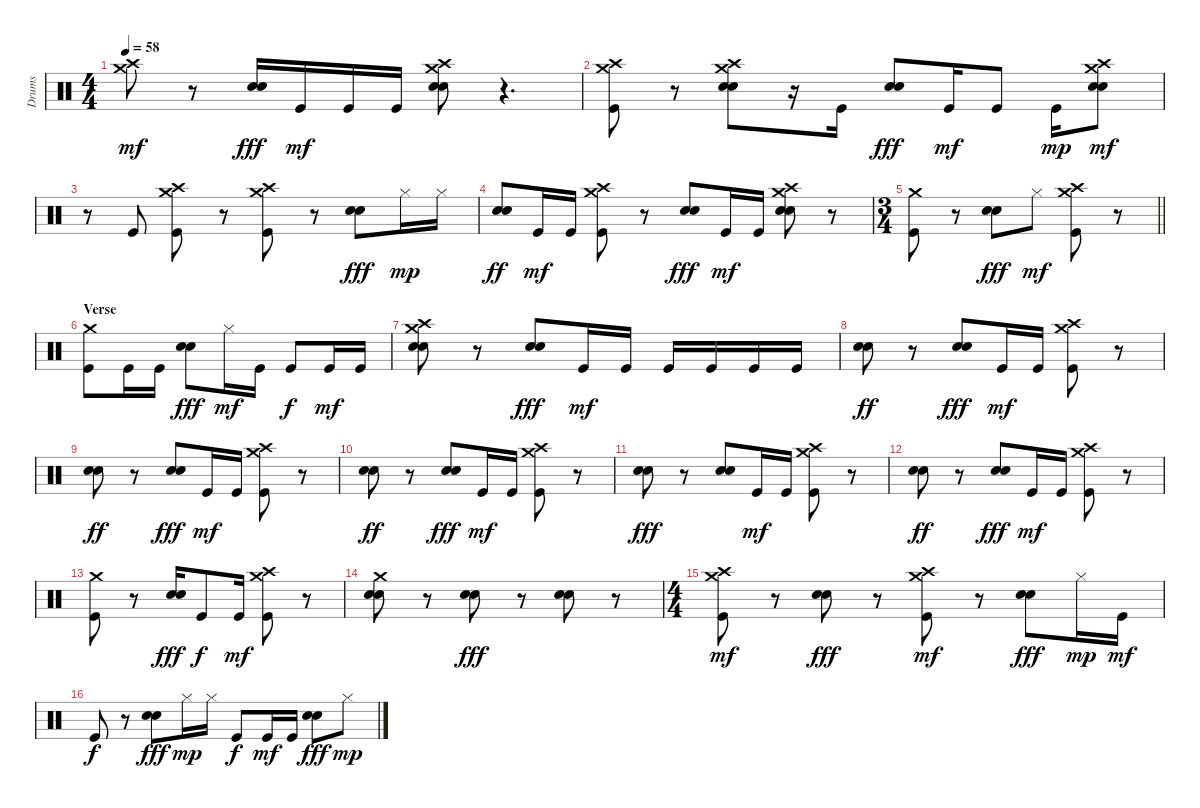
\track ("Drums" "Drums") {instrument percussion}
\staff {score}
\articulation defaults
\ts (4 4)
\tempo 58
\clef neutral
\ks c
("Crash high (hit)" "Crash medium (hit)").8{dy mf} r.8 ("Snare (hit) 2" "Electric Snare (hit)").16{dy fff} "Kick (hit)".16{dy mf} "Kick (hit)".16 "Kick (hit)".16 ("Snare (hit) 2" "Electric Snare (hit)" "Crash high (hit)" "Crash medium (hit)").8 r.4{d} |
("Kick (hit)" "Crash high (hit)" "Crash medium (hit)").8 r.8 ("Snare (hit) 2" "Electric Snare (hit)" "Crash high (hit)" "Crash medium (hit)").8 r.16 "Kick (hit)".16 ("Snare (hit) 2" "Electric Snare (hit)").8{dy fff} "Kick (hit)".16{dy mf} "Kick (hit)".8 "Kick (hit)".16{dy mp} ("Snare (hit) 2" "Electric Snare (hit)" "Crash high (hit)" "Crash medium (hit)").8{dy mf} |
r.8 "Kick (hit)".8 ("Kick (hit)" "Crash high (hit)" "Crash medium (hit)").8 r.8 ("Kick (hit)" "Crash high (hit)" "Crash medium (hit)").8 r.8 ("Snare (hit) 2" "Electric Snare (hit)").8{dy fff} "Hi-Hat (closed)".16{dy mp} "Hi-Hat (closed)".16 |
("Snare (hit) 2" "Electric Snare (hit)").8{dy ff} "Kick (hit)".16{dy mf} "Kick (hit)".16 ("Kick (hit)" "Crash high (hit)" "Crash medium (hit)").8 r.8 ("Snare (hit) 2" "Electric Snare (hit)").8{dy fff} "Kick (hit)".16{dy mf} "Kick (hit)".16 ("Snare (hit) 2" "Electric Snare (hit)" "Crash high (hit)" "Crash medium (hit)").8 r.8 |
\ts (3 4)
\barLineRight lightlight
("Kick (hit)" "Crash medium (hit)").8 r.8 ("Snare (hit) 2" "Electric Snare (hit)").8{dy fff} "Hi-Hat (closed)".8{dy mf} ("Kick (hit)" "Crash high (hit)" "Crash medium (hit)").8 r.8 |
\section ("" "Verse")
("Kick (hit)" "Crash medium (hit)").8 "Kick (hit)".16 "Kick (hit)".16 ("Snare (hit) 2" "Electric Snare (hit)").8{dy fff} "Hi-Hat (closed)".16{dy mf} "Kick (hit)".16 "Kick (hit)".8{dy f} "Kick (hit)".16{dy mf} "Kick (hit)".16 |
("Snare (hit) 2" "Electric Snare (hit)" "Crash high (hit)" "Crash medium (hit)").8 r.8 ("Snare (hit) 2" "Electric Snare (hit)").8{dy fff} "Kick (hit)".16{dy mf} "Kick (hit)".16 "Kick (hit)".16 "Kick (hit)".16 "Kick (hit)".16 "Kick (hit)".16 |
("Snare (hit) 2" "Electric Snare (hit)").8{dy ff} r.8 ("Snare (hit) 2" "Electric Snare (hit)").8{dy fff} "Kick (hit)".16{dy mf} "Kick (hit)".16 ("Kick (hit)" "Crash high (hit)" "Crash medium (hit)").8 r.8 |
("Snare (hit) 2" "Electric Snare (hit)").8{dy ff} r.8 ("Snare (hit) 2" "Electric Snare (hit)").8{dy fff} "Kick (hit)".16{dy mf} "Kick (hit)".16 ("Kick (hit)" "Crash high (hit)" "Crash medium (hit)").8 r.8 |
("Snare (hit) 2" "Electric Snare (hit)").8{dy ff} r.8 ("Snare (hit) 2" "Electric Snare (hit)").8{dy fff} "Kick (hit)".16{dy mf} "Kick (hit)".16 ("Kick (hit)" "Crash high (hit)" "Crash medium (hit)").8 r.8 |
("Snare (hit) 2" "Electric Snare (hit)").8{dy fff} r.8 ("Snare (hit) 2" "Electric Snare (hit)").8 "Kick (hit)".16{dy mf} "Kick (hit)".16 ("Kick (hit)" "Crash high (hit)" "Crash medium (hit)").8 r.8 |
("Snare (hit) 2" "Electric Snare (hit)").8{dy ff} r.8 ("Snare (hit) 2" "Electric Snare (hit)").8{dy fff} "Kick (hit)".16{dy mf} "Kick (hit)".16 ("Kick (hit)" "Crash high (hit)" "Crash medium (hit)").8 r.8 |
("Kick (hit)" "Crash medium (hit)").8 r.8 ("Snare (hit) 2" "Electric Snare (hit)").16{dy fff} "Kick (hit)".8{dy f} "Kick (hit)".16{dy mf} ("Kick (hit)" "Crash high (hit)" "Crash medium (hit)").8 r.8 |
("Snare (hit) 2" "Electric Snare (hit)" "Crash medium (hit)").8 r.8 ("Snare (hit) 2" "Electric Snare (hit)").8{dy fff} r.8 ("Snare (hit) 2" "Electric Snare (hit)").8 r.8 |
\ts (4 4)
("Kick (hit)" "Crash high (hit)" "Crash medium (hit)").8{dy mf} r.8 ("Snare (hit) 2" "Electric Snare (hit)").8{dy fff} r.8 ("Kick (hit)" "Crash high (hit)" "Crash medium (hit)").8{dy mf} r.8 ("Snare (hit) 2" "Electric Snare (hit)").8{dy fff} "Hi-Hat (closed)".16{dy mp} "Kick (hit)".16{dy mf} |
"Kick (hit)".8{dy f} r.8 ("Snare (hit) 2" "Electric Snare (hit)").8{dy fff} "Hi-Hat (closed)".16{dy mp} "Hi-Hat (closed)".16 "Kick (hit)".8{dy f} "Kick (hit)".16{dy mf} "Kick (hit)".16 ("Snare (hit) 2" "Electric Snare (hit)").8{dy fff} "Hi-Hat (closed)".8{dy mp}
